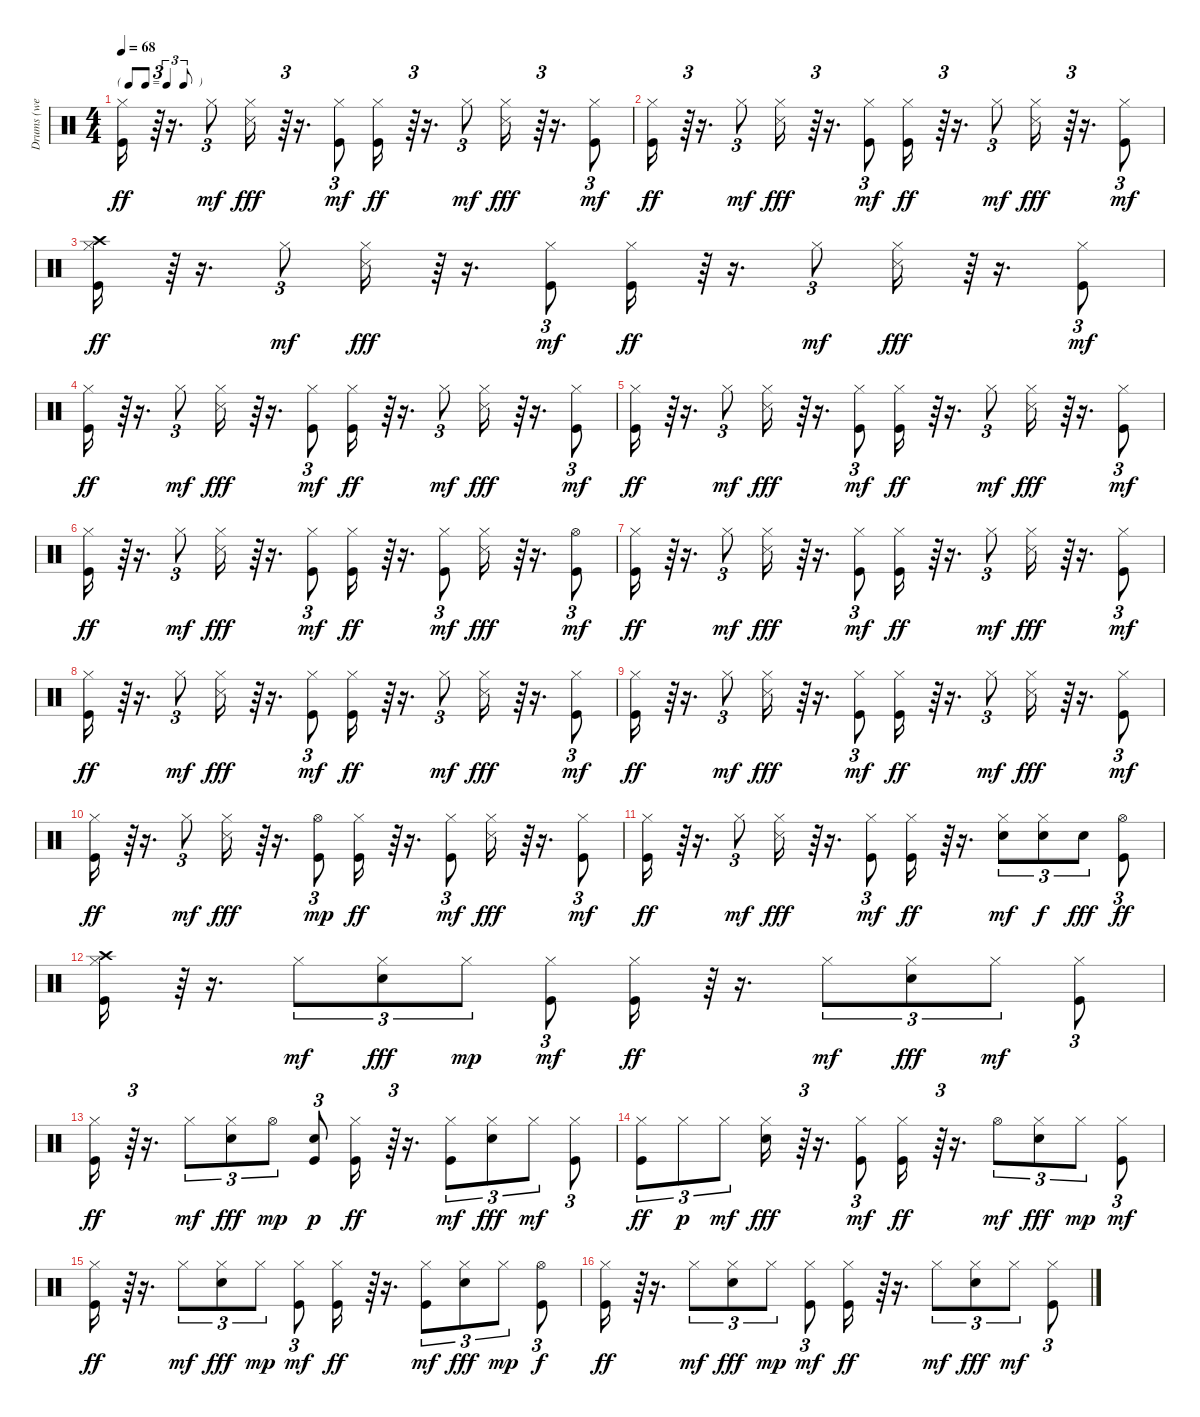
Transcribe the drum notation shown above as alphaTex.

\track (" Drums (well Duh!)" " Drums (we") {instrument percussion}
\staff {score}
\articulation defaults
\ts (4 4)
\tf triplet8th
\tempo 68
\clef neutral
\ks c
("Kick (hit)" "Hi-Hat (closed)").16{dy ff} r.64{tu (3 2)} r.16{d} "Hi-Hat (closed)".8{tu (3 2) dy mf} ("Hi-Hat (closed)" "Snare (side stick) 3").16{dy fff} r.64{tu (3 2)} r.16{d} ("Kick (hit)" "Hi-Hat (closed)").8{tu (3 2) dy mf} ("Kick (hit)" "Hi-Hat (closed)").16{dy ff} r.64{tu (3 2)} r.16{d} "Hi-Hat (closed)".8{tu (3 2) dy mf} ("Hi-Hat (closed)" "Snare (side stick) 3").16{dy fff} r.64{tu (3 2)} r.16{d} ("Kick (hit)" "Hi-Hat (closed)").8{tu (3 2) dy mf} |
("Kick (hit)" "Hi-Hat (closed)").16{dy ff} r.64{tu (3 2)} r.16{d} "Hi-Hat (closed)".8{tu (3 2) dy mf} ("Hi-Hat (closed)" "Snare (side stick) 3").16{dy fff} r.64{tu (3 2)} r.16{d} ("Kick (hit)" "Hi-Hat (closed)").8{tu (3 2) dy mf} ("Kick (hit)" "Hi-Hat (closed)").16{dy ff} r.64{tu (3 2)} r.16{d} "Hi-Hat (closed)".8{tu (3 2) dy mf} ("Hi-Hat (closed)" "Snare (side stick) 3").16{dy fff} r.64{tu (3 2)} r.16{d} ("Kick (hit)" "Hi-Hat (closed)").8{tu (3 2) dy mf} |
("Kick (hit)" "Hi-Hat (closed)" "Crash high (hit)").16{dy ff} r.64{tu (3 2)} r.16{d} "Hi-Hat (closed)".8{tu (3 2) dy mf} ("Hi-Hat (closed)" "Snare (side stick) 3").16{dy fff} r.64{tu (3 2)} r.16{d} ("Kick (hit)" "Hi-Hat (closed)").8{tu (3 2) dy mf} ("Kick (hit)" "Hi-Hat (closed)").16{dy ff} r.64{tu (3 2)} r.16{d} "Hi-Hat (closed)".8{tu (3 2) dy mf} ("Hi-Hat (closed)" "Snare (side stick) 3").16{dy fff} r.64{tu (3 2)} r.16{d} ("Kick (hit)" "Hi-Hat (closed)").8{tu (3 2) dy mf} |
("Kick (hit)" "Hi-Hat (closed)").16{dy ff} r.64{tu (3 2)} r.16{d} "Hi-Hat (closed)".8{tu (3 2) dy mf} ("Hi-Hat (closed)" "Snare (side stick) 3").16{dy fff} r.64{tu (3 2)} r.16{d} ("Kick (hit)" "Hi-Hat (closed)").8{tu (3 2) dy mf} ("Kick (hit)" "Hi-Hat (closed)").16{dy ff} r.64{tu (3 2)} r.16{d} "Hi-Hat (closed)".8{tu (3 2) dy mf} ("Hi-Hat (closed)" "Snare (side stick) 3").16{dy fff} r.64{tu (3 2)} r.16{d} ("Kick (hit)" "Hi-Hat (closed)").8{tu (3 2) dy mf} |
("Kick (hit)" "Hi-Hat (closed)").16{dy ff} r.64{tu (3 2)} r.16{d} "Hi-Hat (closed)".8{tu (3 2) dy mf} ("Hi-Hat (closed)" "Snare (side stick) 3").16{dy fff} r.64{tu (3 2)} r.16{d} ("Kick (hit)" "Hi-Hat (closed)").8{tu (3 2) dy mf} ("Kick (hit)" "Hi-Hat (closed)").16{dy ff} r.64{tu (3 2)} r.16{d} "Hi-Hat (closed)".8{tu (3 2) dy mf} ("Hi-Hat (closed)" "Snare (side stick) 3").16{dy fff} r.64{tu (3 2)} r.16{d} ("Kick (hit)" "Hi-Hat (closed)").8{tu (3 2) dy mf} |
("Kick (hit)" "Hi-Hat (closed)").16{dy ff} r.64{tu (3 2)} r.16{d} "Hi-Hat (closed)".8{tu (3 2) dy mf} ("Hi-Hat (closed)" "Snare (side stick) 3").16{dy fff} r.64{tu (3 2)} r.16{d} ("Kick (hit)" "Hi-Hat (closed)").8{tu (3 2) dy mf} ("Kick (hit)" "Hi-Hat (closed)").16{dy ff} r.64{tu (3 2)} r.16{d} ("Kick (hit)" "Hi-Hat (closed)").8{tu (3 2) dy mf} ("Hi-Hat (closed)" "Snare (side stick) 3").16{dy fff} r.64{tu (3 2)} r.16{d} ("Kick (hit)" "Hi-Hat (open)").8{tu (3 2) dy mf} |
("Kick (hit)" "Hi-Hat (closed)").16{dy ff} r.64{tu (3 2)} r.16{d} "Hi-Hat (closed)".8{tu (3 2) dy mf} ("Hi-Hat (closed)" "Snare (side stick) 3").16{dy fff} r.64{tu (3 2)} r.16{d} ("Kick (hit)" "Hi-Hat (closed)").8{tu (3 2) dy mf} ("Kick (hit)" "Hi-Hat (closed)").16{dy ff} r.64{tu (3 2)} r.16{d} "Hi-Hat (closed)".8{tu (3 2) dy mf} ("Hi-Hat (closed)" "Snare (side stick) 3").16{dy fff} r.64{tu (3 2)} r.16{d} ("Kick (hit)" "Hi-Hat (closed)").8{tu (3 2) dy mf} |
("Kick (hit)" "Hi-Hat (closed)").16{dy ff} r.64{tu (3 2)} r.16{d} "Hi-Hat (closed)".8{tu (3 2) dy mf} ("Hi-Hat (closed)" "Snare (side stick) 3").16{dy fff} r.64{tu (3 2)} r.16{d} ("Kick (hit)" "Hi-Hat (closed)").8{tu (3 2) dy mf} ("Kick (hit)" "Hi-Hat (closed)").16{dy ff} r.64{tu (3 2)} r.16{d} "Hi-Hat (closed)".8{tu (3 2) dy mf} ("Hi-Hat (closed)" "Snare (side stick) 3").16{dy fff} r.64{tu (3 2)} r.16{d} ("Kick (hit)" "Hi-Hat (closed)").8{tu (3 2) dy mf} |
("Kick (hit)" "Hi-Hat (closed)").16{dy ff} r.64{tu (3 2)} r.16{d} "Hi-Hat (closed)".8{tu (3 2) dy mf} ("Hi-Hat (closed)" "Snare (side stick) 3").16{dy fff} r.64{tu (3 2)} r.16{d} ("Kick (hit)" "Hi-Hat (closed)").8{tu (3 2) dy mf} ("Kick (hit)" "Hi-Hat (closed)").16{dy ff} r.64{tu (3 2)} r.16{d} "Hi-Hat (closed)".8{tu (3 2) dy mf} ("Hi-Hat (closed)" "Snare (side stick) 3").16{dy fff} r.64{tu (3 2)} r.16{d} ("Kick (hit)" "Hi-Hat (closed)").8{tu (3 2) dy mf} |
("Kick (hit)" "Hi-Hat (closed)").16{dy ff} r.64{tu (3 2)} r.16{d} "Hi-Hat (closed)".8{tu (3 2) dy mf} ("Hi-Hat (closed)" "Snare (side stick) 3").16{dy fff} r.64{tu (3 2)} r.16{d} ("Kick (hit)" "Hi-Hat (open)").8{tu (3 2) dy mp} ("Kick (hit)" "Hi-Hat (closed)").16{dy ff} r.64{tu (3 2)} r.16{d} ("Kick (hit)" "Hi-Hat (closed)").8{tu (3 2) dy mf} ("Hi-Hat (closed)" "Snare (side stick) 3").16{dy fff} r.64{tu (3 2)} r.16{d} ("Kick (hit)" "Hi-Hat (closed)").8{tu (3 2) dy mf} |
("Kick (hit)" "Hi-Hat (closed)").16{dy ff} r.64{tu (3 2)} r.16{d} "Hi-Hat (closed)".8{tu (3 2) dy mf} ("Hi-Hat (closed)" "Snare (side stick) 3").16{dy fff} r.64{tu (3 2)} r.16{d} ("Kick (hit)" "Hi-Hat (closed)").8{tu (3 2) dy mf} ("Kick (hit)" "Hi-Hat (closed)").16{dy ff} r.64{tu (3 2)} r.16{d} ("Snare (hit) 2" "Hi-Hat (closed)").8{tu (3 2) dy mf} ("Snare (hit) 2" "Hi-Hat (closed)").8{tu (3 2) dy f} "Snare (hit) 2".8{tu (3 2) dy fff} ("Kick (hit)" "Hi-Hat (open)").8{tu (3 2) dy ff} |
("Kick (hit)" "Hi-Hat (closed)" "Crash high (hit)").16 r.64{tu (3 2)} r.16{d} "Hi-Hat (closed)".8{tu (3 2) dy mf} ("Snare (hit) 2" "Hi-Hat (closed)").8{tu (3 2) dy fff} "Hi-Hat (closed)".8{tu (3 2) dy mp} ("Kick (hit)" "Hi-Hat (closed)").8{tu (3 2) dy mf} ("Kick (hit)" "Hi-Hat (closed)").16{dy ff} r.64{tu (3 2)} r.16{d} "Hi-Hat (closed)".8{tu (3 2) dy mf} ("Snare (hit) 2" "Hi-Hat (closed)").8{tu (3 2) dy fff} "Hi-Hat (closed)".8{tu (3 2) dy mf} ("Kick (hit)" "Hi-Hat (closed)").8{tu (3 2)} |
("Kick (hit)" "Hi-Hat (closed)").16{dy ff} r.64{tu (3 2)} r.16{d} "Hi-Hat (closed)".8{tu (3 2) dy mf} ("Snare (hit) 2" "Hi-Hat (closed)").8{tu (3 2) dy fff} "Hi-Hat (open)".8{tu (3 2) dy mp} ("Kick (hit)" "Snare (hit) 2").8{tu (3 2) dy p} ("Kick (hit)" "Hi-Hat (closed)").16{dy ff} r.64{tu (3 2)} r.16{d} ("Kick (hit)" "Hi-Hat (closed)").8{tu (3 2) dy mf} ("Snare (hit) 2" "Hi-Hat (closed)").8{tu (3 2) dy fff} "Hi-Hat (closed)".8{tu (3 2) dy mf} ("Kick (hit)" "Hi-Hat (closed)").8{tu (3 2)} |
("Kick (hit)" "Hi-Hat (closed)").8{tu (3 2) dy ff} "Hi-Hat (closed)".8{tu (3 2) dy p} "Hi-Hat (closed)".8{tu (3 2) dy mf} ("Snare (hit) 2" "Hi-Hat (closed)").16{dy fff} r.64{tu (3 2)} r.16{d} ("Kick (hit)" "Hi-Hat (closed)").8{tu (3 2) dy mf} ("Kick (hit)" "Hi-Hat (closed)").16{dy ff} r.64{tu (3 2)} r.16{d} "Hi-Hat (open)".8{tu (3 2) dy mf} ("Snare (hit) 2" "Hi-Hat (closed)").8{tu (3 2) dy fff} "Hi-Hat (closed)".8{tu (3 2) dy mp} ("Kick (hit)" "Hi-Hat (closed)").8{tu (3 2) dy mf} |
("Kick (hit)" "Hi-Hat (closed)").16{dy ff} r.64{tu (3 2)} r.16{d} "Hi-Hat (closed)".8{tu (3 2) dy mf} ("Snare (hit) 2" "Hi-Hat (closed)").8{tu (3 2) dy fff} "Hi-Hat (closed)".8{tu (3 2) dy mp} ("Kick (hit)" "Hi-Hat (closed)").8{tu (3 2) dy mf} ("Kick (hit)" "Hi-Hat (closed)").16{dy ff} r.64{tu (3 2)} r.16{d} ("Kick (hit)" "Hi-Hat (closed)").8{tu (3 2) dy mf} ("Snare (hit) 2" "Hi-Hat (closed)").8{tu (3 2) dy fff} "Hi-Hat (closed)".8{tu (3 2) dy mp} ("Kick (hit)" "Hi-Hat (open)").8{tu (3 2) dy f} |
("Kick (hit)" "Hi-Hat (closed)").16{dy ff} r.64{tu (3 2)} r.16{d} "Hi-Hat (closed)".8{tu (3 2) dy mf} ("Snare (hit) 2" "Hi-Hat (closed)").8{tu (3 2) dy fff} "Hi-Hat (closed)".8{tu (3 2) dy mp} ("Kick (hit)" "Hi-Hat (closed)").8{tu (3 2) dy mf} ("Kick (hit)" "Hi-Hat (closed)").16{dy ff} r.64{tu (3 2)} r.16{d} "Hi-Hat (closed)".8{tu (3 2) dy mf} ("Snare (hit) 2" "Hi-Hat (closed)").8{tu (3 2) dy fff} "Hi-Hat (closed)".8{tu (3 2) dy mf} ("Kick (hit)" "Hi-Hat (closed)").8{tu (3 2)}
